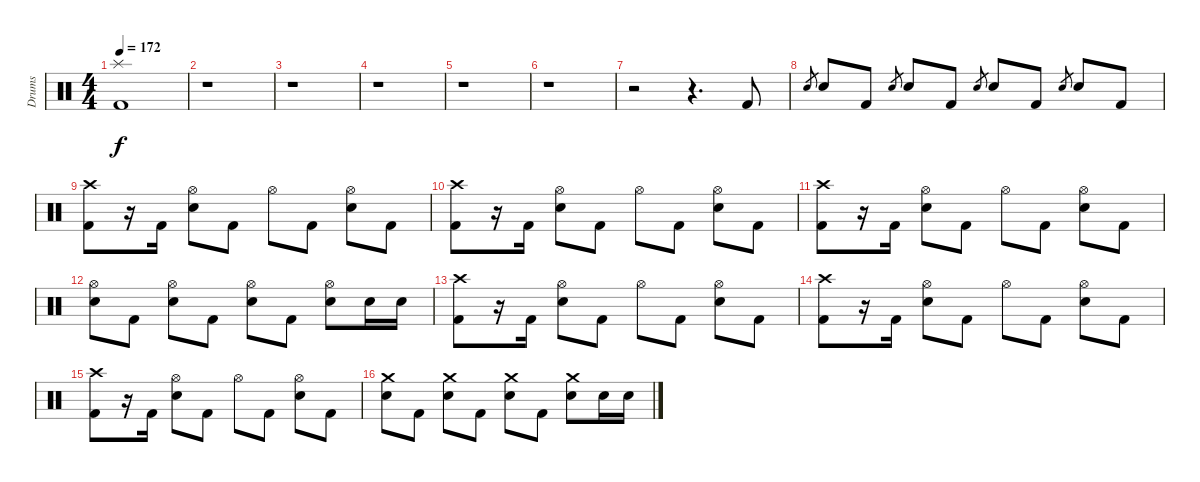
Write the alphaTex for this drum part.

\track ("Drums" "Drums") {instrument percussion}
\staff {score}
\articulation defaults
\ts (4 4)
\tempo 172
\clef neutral
\ks c
("Splash (hit)" "Kick (hit) 2").1{dy f} |
r.1 |
r.1 |
r.1 |
r.1 |
r.1 |
r.2 r.4{d} "Kick (hit) 2".8 |
"Snare (hit) 2".8{gr} "Snare (hit) 2".8 "Kick (hit) 2".8 "Snare (hit) 2".8{gr} "Snare (hit) 2".8 "Kick (hit) 2".8 "Snare (hit) 2".8{gr} "Snare (hit) 2".8 "Kick (hit) 2".8 "Snare (hit) 2".8{gr} "Snare (hit) 2".8 "Kick (hit) 2".8 |
("Crash high (hit)" "Kick (hit) 2").8 r.16 "Kick (hit) 2".16 ("Hi-Hat (open)" "Snare (hit) 2").8 "Kick (hit) 2".8 "Hi-Hat (open)".8 "Kick (hit) 2".8 ("Hi-Hat (open)" "Snare (hit) 2").8 "Kick (hit) 2".8 |
("Crash high (hit)" "Kick (hit) 2").8 r.16 "Kick (hit) 2".16 ("Hi-Hat (open)" "Snare (hit) 2").8 "Kick (hit) 2".8 "Hi-Hat (open)".8 "Kick (hit) 2".8 ("Hi-Hat (open)" "Snare (hit) 2").8 "Kick (hit) 2".8 |
("Crash high (hit)" "Kick (hit) 2").8 r.16 "Kick (hit) 2".16 ("Hi-Hat (open)" "Snare (hit) 2").8 "Kick (hit) 2".8 "Hi-Hat (open)".8 "Kick (hit) 2".8 ("Hi-Hat (open)" "Snare (hit) 2").8 "Kick (hit) 2".8 |
("Hi-Hat (open)" "Snare (hit) 2").8 "Kick (hit) 2".8 ("Hi-Hat (open)" "Snare (hit) 2").8 "Kick (hit) 2".8 ("Hi-Hat (open)" "Snare (hit) 2").8 "Kick (hit) 2".8 ("Hi-Hat (open)" "Snare (hit) 2").8 "Snare (hit) 2".16 "Snare (hit) 2".16 |
("Crash high (hit)" "Kick (hit) 2").8 r.16 "Kick (hit) 2".16 ("Hi-Hat (open)" "Snare (hit) 2").8 "Kick (hit) 2".8 "Hi-Hat (open)".8 "Kick (hit) 2".8 ("Hi-Hat (open)" "Snare (hit) 2").8 "Kick (hit) 2".8 |
("Crash high (hit)" "Kick (hit) 2").8 r.16 "Kick (hit) 2".16 ("Hi-Hat (open)" "Snare (hit) 2").8 "Kick (hit) 2".8 "Hi-Hat (open)".8 "Kick (hit) 2".8 ("Hi-Hat (open)" "Snare (hit) 2").8 "Kick (hit) 2".8 |
("Crash high (hit)" "Kick (hit) 2").8 r.16 "Kick (hit) 2".16 ("Hi-Hat (open)" "Snare (hit) 2").8 "Kick (hit) 2".8 "Hi-Hat (open)".8 "Kick (hit) 2".8 ("Hi-Hat (open)" "Snare (hit) 2").8 "Kick (hit) 2".8 |
("Crash medium (hit)" "Snare (hit) 2").8 "Kick (hit) 2".8 ("Crash medium (hit)" "Snare (hit) 2").8 "Kick (hit) 2".8 ("Crash medium (hit)" "Snare (hit) 2").8 "Kick (hit) 2".8 ("Crash medium (hit)" "Snare (hit) 2").8 "Snare (hit) 2".16 "Snare (hit) 2".16
